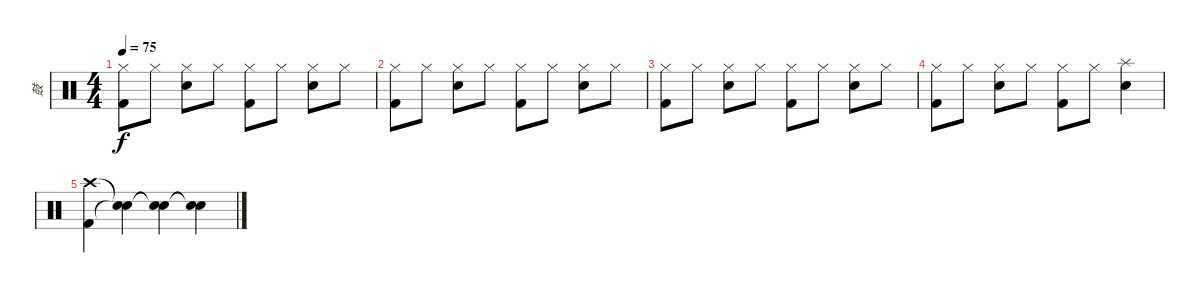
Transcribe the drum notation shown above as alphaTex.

\track ("鼓" "鼓") {instrument percussion}
\staff {score}
\articulation defaults
\ts (4 4)
\tempo 75
\clef neutral
\ks c
("Hi-Hat (closed)" "Kick (hit) 2").8{dy f} "Hi-Hat (closed)".8 ("Hi-Hat (closed)" "Electric Snare (hit)").8 "Hi-Hat (closed)".8 ("Hi-Hat (closed)" "Kick (hit) 2").8 "Hi-Hat (closed)".8 ("Hi-Hat (closed)" "Electric Snare (hit)").8 "Hi-Hat (closed)".8 |
("Hi-Hat (closed)" "Kick (hit) 2").8 "Hi-Hat (closed)".8 ("Hi-Hat (closed)" "Electric Snare (hit)").8 "Hi-Hat (closed)".8 ("Hi-Hat (closed)" "Kick (hit) 2").8 "Hi-Hat (closed)".8 ("Hi-Hat (closed)" "Electric Snare (hit)").8 "Hi-Hat (closed)".8 |
("Hi-Hat (closed)" "Kick (hit) 2").8 "Hi-Hat (closed)".8 ("Hi-Hat (closed)" "Electric Snare (hit)").8 "Hi-Hat (closed)".8 ("Hi-Hat (closed)" "Kick (hit) 2").8 "Hi-Hat (closed)".8 ("Hi-Hat (closed)" "Electric Snare (hit)").8 "Hi-Hat (closed)".8 |
("Hi-Hat (closed)" "Kick (hit) 2").8 "Hi-Hat (closed)".8 ("Hi-Hat (closed)" "Electric Snare (hit)").8 "Hi-Hat (closed)".8 ("Hi-Hat (closed)" "Kick (hit) 2").8 "Hi-Hat (closed)".8 ("Splash (hit)" "Electric Snare (hit)").4 |
("Crash high (hit)" "Kick (hit) 2").4 ("Snare (hit)"{t} "Snare (hit)"{t}).4 ("Snare (hit)"{t} "Snare (hit)"{t}).4 ("Snare (hit)"{t} "Snare (hit)"{t}).4
